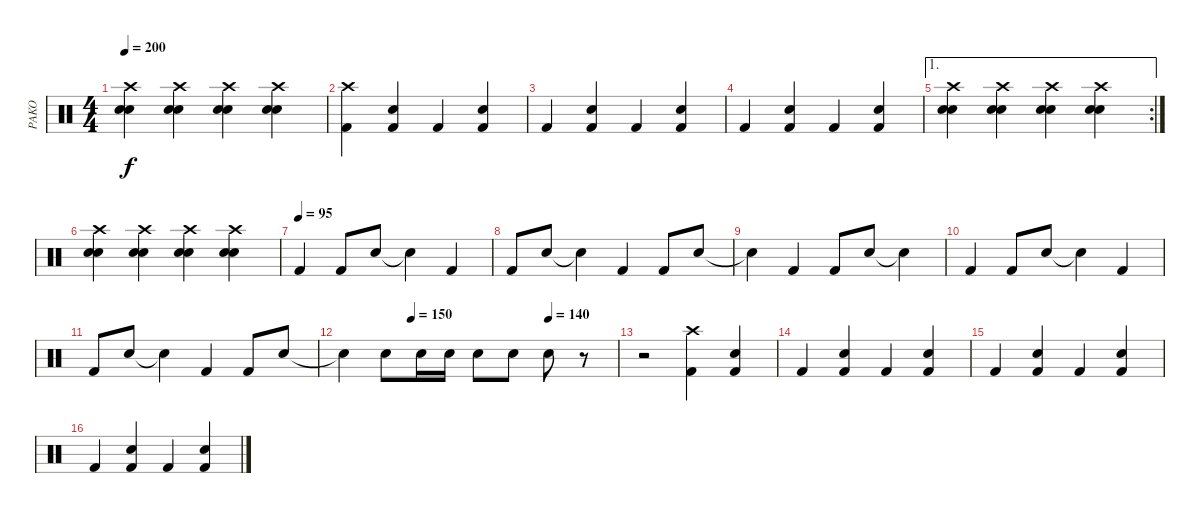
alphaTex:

\track ("PAKO" "PAKO") {instrument percussion}
\staff {score}
\articulation defaults
\ts (4 4)
\tempo 200
\clef neutral
\ks c
("Crash high (hit)" "Electric Snare (hit)" "Snare (hit) 2").4{dy f} ("Crash high (hit)" "Electric Snare (hit)" "Snare (hit) 2").4 ("Crash high (hit)" "Electric Snare (hit)" "Snare (hit) 2").4 ("Crash high (hit)" "Electric Snare (hit)" "Snare (hit) 2").4 |
("Crash high (hit)" "Kick (hit) 2").4 ("Electric Snare (hit)" "Kick (hit) 2").4 "Kick (hit) 2".4 ("Electric Snare (hit)" "Kick (hit) 2").4 |
"Kick (hit) 2".4 ("Electric Snare (hit)" "Kick (hit) 2").4 "Kick (hit) 2".4 ("Electric Snare (hit)" "Kick (hit) 2").4 |
"Kick (hit) 2".4 ("Electric Snare (hit)" "Kick (hit) 2").4 "Kick (hit) 2".4 ("Electric Snare (hit)" "Kick (hit) 2").4 |
\ae 1
\rc 2
("Crash high (hit)" "Electric Snare (hit)" "Snare (hit) 2").4 ("Crash high (hit)" "Electric Snare (hit)" "Snare (hit) 2").4 ("Crash high (hit)" "Electric Snare (hit)" "Snare (hit) 2").4 ("Crash high (hit)" "Electric Snare (hit)" "Snare (hit) 2").4 |
("Crash high (hit)" "Electric Snare (hit)" "Snare (hit) 2").4 ("Crash high (hit)" "Electric Snare (hit)" "Snare (hit) 2").4 ("Crash high (hit)" "Electric Snare (hit)" "Snare (hit) 2").4 ("Crash high (hit)" "Electric Snare (hit)" "Snare (hit) 2").4 |
\tempo (95)
"Kick (hit) 2".4 "Kick (hit) 2".8 "Snare (hit) 2".8 "Snare (hit)"{t}.4 "Kick (hit) 2".4 |
"Kick (hit) 2".8 "Snare (hit) 2".8 "Snare (hit)"{t}.4 "Kick (hit) 2".4 "Kick (hit) 2".8 "Snare (hit) 2".8 |
"Snare (hit)"{t}.4 "Kick (hit) 2".4 "Kick (hit) 2".8 "Snare (hit) 2".8 "Snare (hit)"{t}.4 |
"Kick (hit) 2".4 "Kick (hit) 2".8 "Snare (hit) 2".8 "Snare (hit)"{t}.4 "Kick (hit) 2".4 |
"Kick (hit) 2".8 "Snare (hit) 2".8 "Snare (hit)"{t}.4 "Kick (hit) 2".4 "Kick (hit) 2".8 "Snare (hit) 2".8 |
\tempo (150 0.25)
\tempo (140 0.75)
"Snare (hit)"{t}.4 "Snare (hit) 2".8 "Snare (hit) 2".16 "Snare (hit) 2".16 "Snare (hit) 2".8 "Snare (hit) 2".8 "Snare (hit) 2".8 r.8 |
r.2 ("Crash high (hit)" "Kick (hit) 2").4 ("Electric Snare (hit)" "Kick (hit) 2").4 |
"Kick (hit) 2".4 ("Electric Snare (hit)" "Kick (hit) 2").4 "Kick (hit) 2".4 ("Electric Snare (hit)" "Kick (hit) 2").4 |
"Kick (hit) 2".4 ("Electric Snare (hit)" "Kick (hit) 2").4 "Kick (hit) 2".4 ("Electric Snare (hit)" "Kick (hit) 2").4 |
"Kick (hit) 2".4 ("Electric Snare (hit)" "Kick (hit) 2").4 "Kick (hit) 2".4 ("Electric Snare (hit)" "Kick (hit) 2").4
